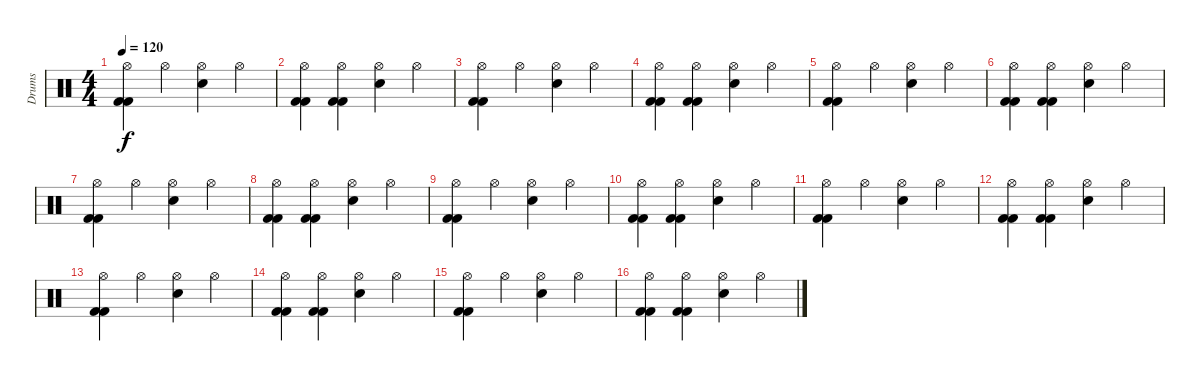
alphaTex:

\track ("Drums" "Drums") {instrument percussion}
\staff {score}
\articulation defaults
\ts (4 4)
\tempo 120
\clef neutral
\ks c
("Hi-Hat (open)" "Kick (hit) 2" "Kick (hit) 2").4{dy f} "Hi-Hat (open)".4 ("Hi-Hat (open)" "Electric Snare (hit)").4 "Hi-Hat (open)".4 |
("Hi-Hat (open)" "Kick (hit) 2" "Kick (hit) 2").4 ("Hi-Hat (open)" "Kick (hit) 2" "Kick (hit) 2").4 ("Hi-Hat (open)" "Electric Snare (hit)").4 "Hi-Hat (open)".4 |
("Hi-Hat (open)" "Kick (hit) 2" "Kick (hit) 2").4 "Hi-Hat (open)".4 ("Hi-Hat (open)" "Electric Snare (hit)").4 "Hi-Hat (open)".4 |
("Hi-Hat (open)" "Kick (hit) 2" "Kick (hit) 2").4 ("Hi-Hat (open)" "Kick (hit) 2" "Kick (hit) 2").4 ("Hi-Hat (open)" "Electric Snare (hit)").4 "Hi-Hat (open)".4 |
("Hi-Hat (open)" "Kick (hit) 2" "Kick (hit) 2").4 "Hi-Hat (open)".4 ("Hi-Hat (open)" "Electric Snare (hit)").4 "Hi-Hat (open)".4 |
("Hi-Hat (open)" "Kick (hit) 2" "Kick (hit) 2").4 ("Hi-Hat (open)" "Kick (hit) 2" "Kick (hit) 2").4 ("Hi-Hat (open)" "Electric Snare (hit)").4 "Hi-Hat (open)".4 |
("Hi-Hat (open)" "Kick (hit) 2" "Kick (hit) 2").4 "Hi-Hat (open)".4 ("Hi-Hat (open)" "Electric Snare (hit)").4 "Hi-Hat (open)".4 |
("Hi-Hat (open)" "Kick (hit) 2" "Kick (hit) 2").4 ("Hi-Hat (open)" "Kick (hit) 2" "Kick (hit) 2").4 ("Hi-Hat (open)" "Electric Snare (hit)").4 "Hi-Hat (open)".4 |
("Hi-Hat (open)" "Kick (hit) 2" "Kick (hit) 2").4 "Hi-Hat (open)".4 ("Hi-Hat (open)" "Electric Snare (hit)").4 "Hi-Hat (open)".4 |
("Hi-Hat (open)" "Kick (hit) 2" "Kick (hit) 2").4 ("Hi-Hat (open)" "Kick (hit) 2" "Kick (hit) 2").4 ("Hi-Hat (open)" "Electric Snare (hit)").4 "Hi-Hat (open)".4 |
("Hi-Hat (open)" "Kick (hit) 2" "Kick (hit) 2").4 "Hi-Hat (open)".4 ("Hi-Hat (open)" "Electric Snare (hit)").4 "Hi-Hat (open)".4 |
("Hi-Hat (open)" "Kick (hit) 2" "Kick (hit) 2").4 ("Hi-Hat (open)" "Kick (hit) 2" "Kick (hit) 2").4 ("Hi-Hat (open)" "Electric Snare (hit)").4 "Hi-Hat (open)".4 |
("Hi-Hat (open)" "Kick (hit) 2" "Kick (hit) 2").4 "Hi-Hat (open)".4 ("Hi-Hat (open)" "Electric Snare (hit)").4 "Hi-Hat (open)".4 |
("Hi-Hat (open)" "Kick (hit) 2" "Kick (hit) 2").4 ("Hi-Hat (open)" "Kick (hit) 2" "Kick (hit) 2").4 ("Hi-Hat (open)" "Electric Snare (hit)").4 "Hi-Hat (open)".4 |
("Hi-Hat (open)" "Kick (hit) 2" "Kick (hit) 2").4 "Hi-Hat (open)".4 ("Hi-Hat (open)" "Electric Snare (hit)").4 "Hi-Hat (open)".4 |
("Hi-Hat (open)" "Kick (hit) 2" "Kick (hit) 2").4 ("Hi-Hat (open)" "Kick (hit) 2" "Kick (hit) 2").4 ("Hi-Hat (open)" "Electric Snare (hit)").4 "Hi-Hat (open)".4
